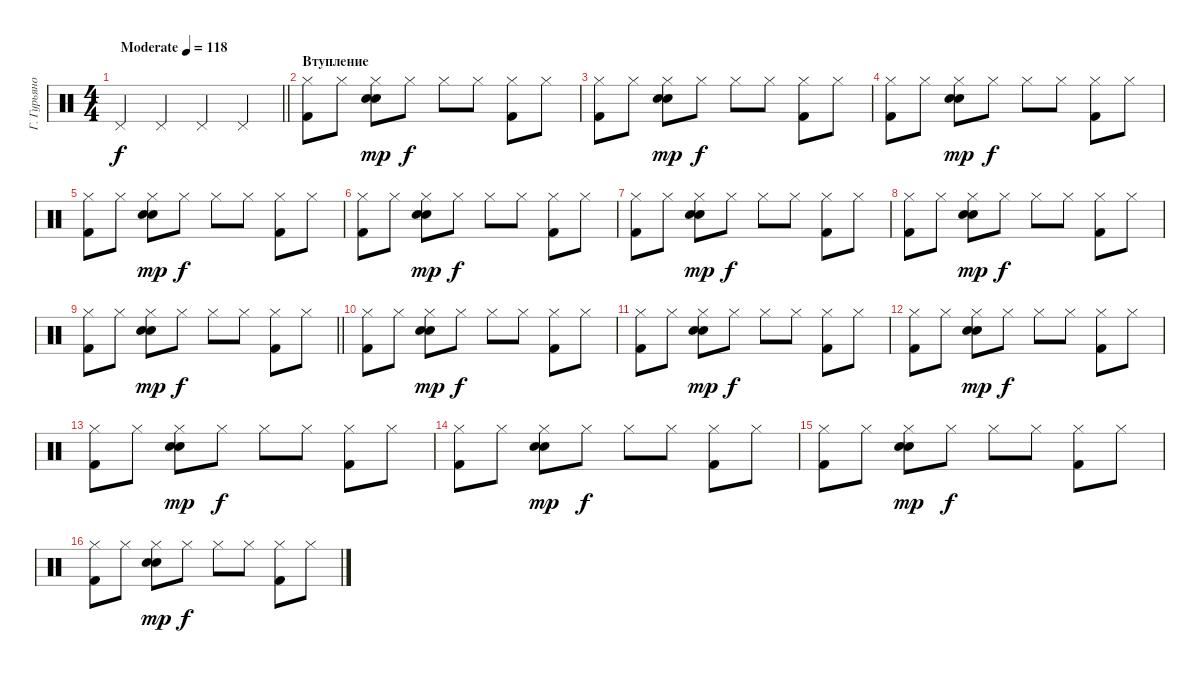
\track ("Г. Гурьянов" "Г. Гурьяно") {instrument percussion}
\staff
\articulation defaults
\ts (4 4)
\tempo (118 "Moderate")
\clef neutral
\barLineRight lightlight
\ks c "Pedal Hi-Hat (hit)".4{dy f} "Pedal Hi-Hat (hit)".4 "Pedal Hi-Hat (hit)".4 "Pedal Hi-Hat (hit)".4
|
\section ("" "Втупление")
("Hi-Hat (closed)" "Kick (hit) 2").8 "Hi-Hat (closed)".8 ("Hi-Hat (closed)" "Electric Snare (hit)" "Snare (hit) 2").8{dy mp} "Hi-Hat (closed)".8{dy f} "Hi-Hat (closed)".8 "Hi-Hat (closed)".8 ("Hi-Hat (closed)" "Kick (hit) 2").8 "Hi-Hat (closed)".8 |
("Hi-Hat (closed)" "Kick (hit) 2").8 "Hi-Hat (closed)".8 ("Hi-Hat (closed)" "Electric Snare (hit)" "Snare (hit) 2").8{dy mp} "Hi-Hat (closed)".8{dy f} "Hi-Hat (closed)".8 "Hi-Hat (closed)".8 ("Hi-Hat (closed)" "Kick (hit) 2").8 "Hi-Hat (closed)".8 |
("Hi-Hat (closed)" "Kick (hit) 2").8 "Hi-Hat (closed)".8 ("Hi-Hat (closed)" "Electric Snare (hit)" "Snare (hit) 2").8{dy mp} "Hi-Hat (closed)".8{dy f} "Hi-Hat (closed)".8 "Hi-Hat (closed)".8 ("Hi-Hat (closed)" "Kick (hit) 2").8 "Hi-Hat (closed)".8 |
("Hi-Hat (closed)" "Kick (hit) 2").8 "Hi-Hat (closed)".8 ("Hi-Hat (closed)" "Electric Snare (hit)" "Snare (hit) 2").8{dy mp} "Hi-Hat (closed)".8{dy f} "Hi-Hat (closed)".8 "Hi-Hat (closed)".8 ("Hi-Hat (closed)" "Kick (hit) 2").8 "Hi-Hat (closed)".8 |
("Hi-Hat (closed)" "Kick (hit) 2").8 "Hi-Hat (closed)".8 ("Hi-Hat (closed)" "Electric Snare (hit)" "Snare (hit) 2").8{dy mp} "Hi-Hat (closed)".8{dy f} "Hi-Hat (closed)".8 "Hi-Hat (closed)".8 ("Hi-Hat (closed)" "Kick (hit) 2").8 "Hi-Hat (closed)".8 |
("Hi-Hat (closed)" "Kick (hit) 2").8 "Hi-Hat (closed)".8 ("Hi-Hat (closed)" "Electric Snare (hit)" "Snare (hit) 2").8{dy mp} "Hi-Hat (closed)".8{dy f} "Hi-Hat (closed)".8 "Hi-Hat (closed)".8 ("Hi-Hat (closed)" "Kick (hit) 2").8 "Hi-Hat (closed)".8 |
("Hi-Hat (closed)" "Kick (hit) 2").8 "Hi-Hat (closed)".8 ("Hi-Hat (closed)" "Electric Snare (hit)" "Snare (hit) 2").8{dy mp} "Hi-Hat (closed)".8{dy f} "Hi-Hat (closed)".8 "Hi-Hat (closed)".8 ("Hi-Hat (closed)" "Kick (hit) 2").8 "Hi-Hat (closed)".8 |
\barLineRight lightlight
("Hi-Hat (closed)" "Kick (hit) 2").8 "Hi-Hat (closed)".8 ("Hi-Hat (closed)" "Electric Snare (hit)" "Snare (hit) 2").8{dy mp} "Hi-Hat (closed)".8{dy f} "Hi-Hat (closed)".8 "Hi-Hat (closed)".8 ("Hi-Hat (closed)" "Kick (hit) 2").8 "Hi-Hat (closed)".8 |
("Hi-Hat (closed)" "Kick (hit) 2").8 "Hi-Hat (closed)".8 ("Hi-Hat (closed)" "Electric Snare (hit)" "Snare (hit) 2").8{dy mp} "Hi-Hat (closed)".8{dy f} "Hi-Hat (closed)".8 "Hi-Hat (closed)".8 ("Hi-Hat (closed)" "Kick (hit) 2").8 "Hi-Hat (closed)".8 |
("Hi-Hat (closed)" "Kick (hit) 2").8 "Hi-Hat (closed)".8 ("Hi-Hat (closed)" "Electric Snare (hit)" "Snare (hit) 2").8{dy mp} "Hi-Hat (closed)".8{dy f} "Hi-Hat (closed)".8 "Hi-Hat (closed)".8 ("Hi-Hat (closed)" "Kick (hit) 2").8 "Hi-Hat (closed)".8 |
("Hi-Hat (closed)" "Kick (hit) 2").8 "Hi-Hat (closed)".8 ("Hi-Hat (closed)" "Electric Snare (hit)" "Snare (hit) 2").8{dy mp} "Hi-Hat (closed)".8{dy f} "Hi-Hat (closed)".8 "Hi-Hat (closed)".8 ("Hi-Hat (closed)" "Kick (hit) 2").8 "Hi-Hat (closed)".8 |
("Hi-Hat (closed)" "Kick (hit) 2").8 "Hi-Hat (closed)".8 ("Hi-Hat (closed)" "Electric Snare (hit)" "Snare (hit) 2").8{dy mp} "Hi-Hat (closed)".8{dy f} "Hi-Hat (closed)".8 "Hi-Hat (closed)".8 ("Hi-Hat (closed)" "Kick (hit) 2").8 "Hi-Hat (closed)".8 |
("Hi-Hat (closed)" "Kick (hit) 2").8 "Hi-Hat (closed)".8 ("Hi-Hat (closed)" "Electric Snare (hit)" "Snare (hit) 2").8{dy mp} "Hi-Hat (closed)".8{dy f} "Hi-Hat (closed)".8 "Hi-Hat (closed)".8 ("Hi-Hat (closed)" "Kick (hit) 2").8 "Hi-Hat (closed)".8 |
("Hi-Hat (closed)" "Kick (hit) 2").8 "Hi-Hat (closed)".8 ("Hi-Hat (closed)" "Electric Snare (hit)" "Snare (hit) 2").8{dy mp} "Hi-Hat (closed)".8{dy f} "Hi-Hat (closed)".8 "Hi-Hat (closed)".8 ("Hi-Hat (closed)" "Kick (hit) 2").8 "Hi-Hat (closed)".8 |
("Hi-Hat (closed)" "Kick (hit) 2").8 "Hi-Hat (closed)".8 ("Hi-Hat (closed)" "Electric Snare (hit)" "Snare (hit) 2").8{dy mp} "Hi-Hat (closed)".8{dy f} "Hi-Hat (closed)".8 "Hi-Hat (closed)".8 ("Hi-Hat (closed)" "Kick (hit) 2").8 "Hi-Hat (closed)".8
